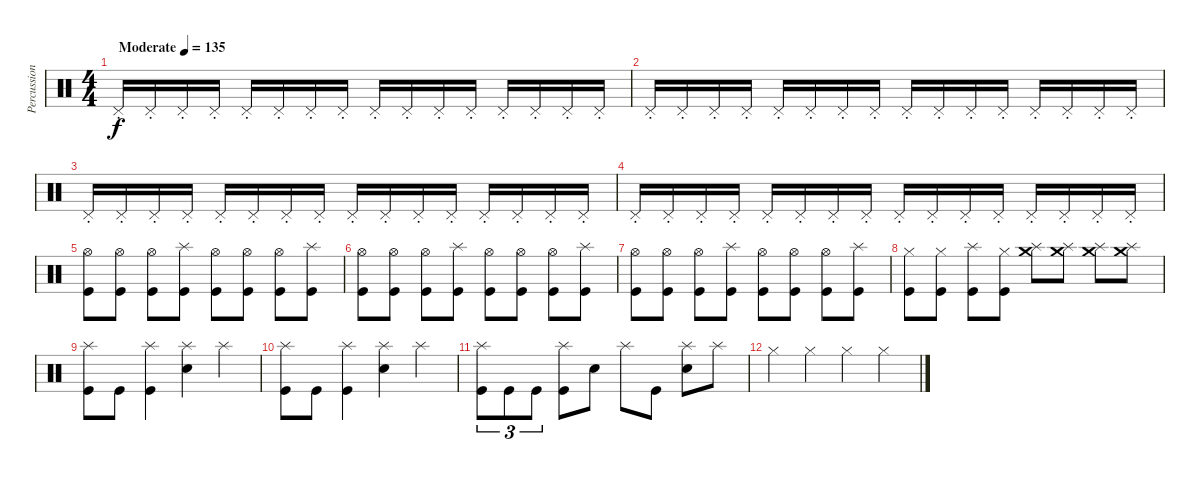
\track ("Percussion" "Percussion") {instrument percussion}
\staff {score}
\articulation defaults
\ts (4 4)
\tempo (135 "Moderate")
\clef neutral
\ks c "Pedal Hi-Hat (hit)"{st}.16{dy f} "Pedal Hi-Hat (hit)"{st}.16 "Pedal Hi-Hat (hit)"{st}.16 "Pedal Hi-Hat (hit)"{st}.16 "Pedal Hi-Hat (hit)"{st}.16 "Pedal Hi-Hat (hit)"{st}.16 "Pedal Hi-Hat (hit)"{st}.16 "Pedal Hi-Hat (hit)"{st}.16 "Pedal Hi-Hat (hit)"{st}.16 "Pedal Hi-Hat (hit)"{st}.16 "Pedal Hi-Hat (hit)"{st}.16 "Pedal Hi-Hat (hit)"{st}.16 "Pedal Hi-Hat (hit)"{st}.16 "Pedal Hi-Hat (hit)"{st}.16 "Pedal Hi-Hat (hit)"{st}.16 "Pedal Hi-Hat (hit)"{st}.16
|
"Pedal Hi-Hat (hit)"{st}.16 "Pedal Hi-Hat (hit)"{st}.16 "Pedal Hi-Hat (hit)"{st}.16 "Pedal Hi-Hat (hit)"{st}.16 "Pedal Hi-Hat (hit)"{st}.16 "Pedal Hi-Hat (hit)"{st}.16 "Pedal Hi-Hat (hit)"{st}.16 "Pedal Hi-Hat (hit)"{st}.16 "Pedal Hi-Hat (hit)"{st}.16 "Pedal Hi-Hat (hit)"{st}.16 "Pedal Hi-Hat (hit)"{st}.16 "Pedal Hi-Hat (hit)"{st}.16 "Pedal Hi-Hat (hit)"{st}.16 "Pedal Hi-Hat (hit)"{st}.16 "Pedal Hi-Hat (hit)"{st}.16 "Pedal Hi-Hat (hit)"{st}.16 |
"Pedal Hi-Hat (hit)"{st}.16 "Pedal Hi-Hat (hit)"{st}.16 "Pedal Hi-Hat (hit)"{st}.16 "Pedal Hi-Hat (hit)"{st}.16 "Pedal Hi-Hat (hit)"{st}.16 "Pedal Hi-Hat (hit)"{st}.16 "Pedal Hi-Hat (hit)"{st}.16 "Pedal Hi-Hat (hit)"{st}.16 "Pedal Hi-Hat (hit)"{st}.16 "Pedal Hi-Hat (hit)"{st}.16 "Pedal Hi-Hat (hit)"{st}.16 "Pedal Hi-Hat (hit)"{st}.16 "Pedal Hi-Hat (hit)"{st}.16 "Pedal Hi-Hat (hit)"{st}.16 "Pedal Hi-Hat (hit)"{st}.16 "Pedal Hi-Hat (hit)"{st}.16 |
"Pedal Hi-Hat (hit)"{st}.16 "Pedal Hi-Hat (hit)"{st}.16 "Pedal Hi-Hat (hit)"{st}.16 "Pedal Hi-Hat (hit)"{st}.16 "Pedal Hi-Hat (hit)"{st}.16 "Pedal Hi-Hat (hit)"{st}.16 "Pedal Hi-Hat (hit)"{st}.16 "Pedal Hi-Hat (hit)"{st}.16 "Pedal Hi-Hat (hit)"{st}.16 "Pedal Hi-Hat (hit)"{st}.16 "Pedal Hi-Hat (hit)"{st}.16 "Pedal Hi-Hat (hit)"{st}.16 "Pedal Hi-Hat (hit)"{st}.16 "Pedal Hi-Hat (hit)"{st}.16 "Pedal Hi-Hat (hit)"{st}.16 "Pedal Hi-Hat (hit)"{st}.16 |
("Kick (hit)" "Hi-Hat (open)").8 ("Kick (hit)" "Hi-Hat (open)").8 ("Kick (hit)" "Hi-Hat (open)").8 ("Kick (hit)" "Splash (hit)").8 ("Kick (hit)" "Hi-Hat (open)").8 ("Kick (hit)" "Hi-Hat (open)").8 ("Kick (hit)" "Hi-Hat (open)").8 ("Kick (hit)" "Splash (hit)").8 |
("Kick (hit)" "Hi-Hat (open)").8 ("Kick (hit)" "Hi-Hat (open)").8 ("Kick (hit)" "Hi-Hat (open)").8 ("Kick (hit)" "Splash (hit)").8 ("Kick (hit)" "Hi-Hat (open)").8 ("Kick (hit)" "Hi-Hat (open)").8 ("Kick (hit)" "Hi-Hat (open)").8 ("Kick (hit)" "Splash (hit)").8 |
("Kick (hit)" "Hi-Hat (open)").8 ("Kick (hit)" "Hi-Hat (open)").8 ("Kick (hit)" "Hi-Hat (open)").8 ("Kick (hit)" "Splash (hit)").8 ("Kick (hit)" "Hi-Hat (open)").8 ("Kick (hit)" "Hi-Hat (open)").8 ("Kick (hit)" "Hi-Hat (open)").8 ("Kick (hit)" "Splash (hit)").8 |
("Kick (hit)" "Hi-Hat (closed)").8 ("Kick (hit)" "Hi-Hat (closed)").8 ("Kick (hit)" "Splash (hit)").8 ("Kick (hit)" "Hi-Hat (closed)").8 ("Crash medium (hit)" "Splash (hit)").8 ("Crash medium (hit)" "Splash (hit)").8 ("Crash medium (hit)" "Splash (hit)").8 ("Crash medium (hit)" "Splash (hit)").8 |
("Splash (hit)" "Kick (hit)").8 "Kick (hit)".8 ("Splash (hit)" "Kick (hit)").4 ("Splash (hit)" "Snare (hit) 2").4 "Splash (hit)".4 |
("Splash (hit)" "Kick (hit)").8 "Kick (hit)".8 ("Splash (hit)" "Kick (hit)").4 ("Splash (hit)" "Snare (hit) 2").4 "Splash (hit)".4 |
("Splash (hit)" "Kick (hit)").8{tu (3 2)} "Kick (hit)".8{tu (3 2)} "Kick (hit)".8{tu (3 2)} ("Splash (hit)" "Kick (hit)").8 "Snare (hit) 2".8 "Splash (hit)".8 "Kick (hit)".8 ("Splash (hit)" "Snare (hit) 2").8 "Splash (hit)".8 |
"Hi-Hat (closed)".4 "Hi-Hat (closed)".4 "Hi-Hat (closed)".4 "Hi-Hat (closed)".4
